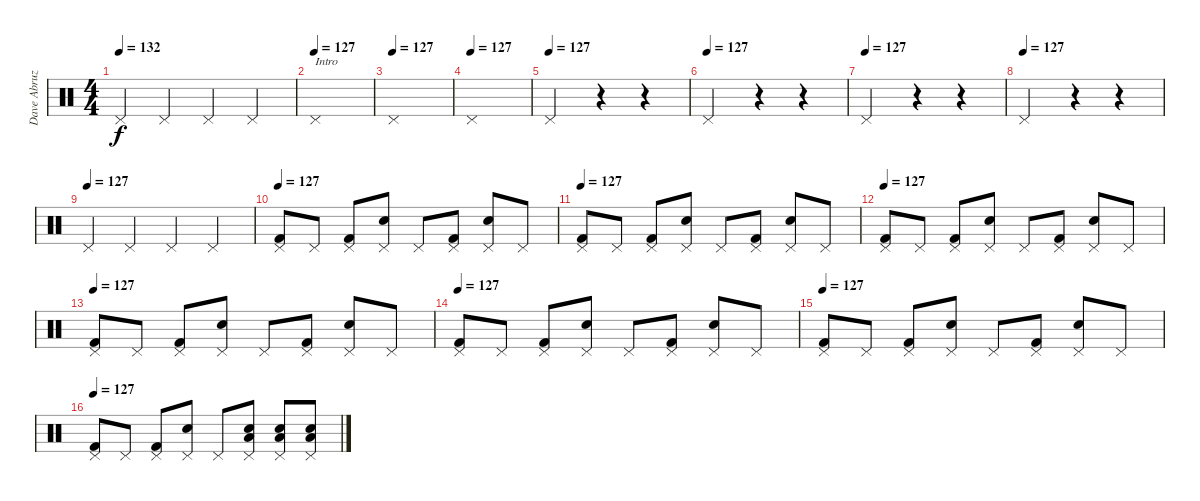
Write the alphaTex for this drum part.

\track ("Dave Abruzzesse" "Dave Abruz") {instrument percussion}
\staff {score}
\articulation defaults
\ts (4 4)
\tempo 132
\clef neutral
\ks c "Pedal Hi-Hat (hit)".4{dy f} "Pedal Hi-Hat (hit)".4 "Pedal Hi-Hat (hit)".4 "Pedal Hi-Hat (hit)".4
|
\tempo (127)
"Pedal Hi-Hat (hit)".1{txt "Intro"} |
\tempo (127)
"Pedal Hi-Hat (hit)".1 |
\tempo (127)
"Pedal Hi-Hat (hit)".1 |
\tempo (127)
"Pedal Hi-Hat (hit)".2 r.4 r.4 |
\tempo (127)
"Pedal Hi-Hat (hit)".2 r.4 r.4 |
\tempo (127)
"Pedal Hi-Hat (hit)".2 r.4 r.4 |
\tempo (127)
"Pedal Hi-Hat (hit)".2 r.4 r.4 |
\tempo (127)
"Pedal Hi-Hat (hit)".4 "Pedal Hi-Hat (hit)".4 "Pedal Hi-Hat (hit)".4 "Pedal Hi-Hat (hit)".4 |
\tempo 127
("Kick (hit) 2" "Pedal Hi-Hat (hit)").8 "Pedal Hi-Hat (hit)".8 ("Kick (hit) 2" "Pedal Hi-Hat (hit)").8 ("Electric Snare (hit)" "Pedal Hi-Hat (hit)").8 "Pedal Hi-Hat (hit)".8 ("Kick (hit) 2" "Pedal Hi-Hat (hit)").8 ("Electric Snare (hit)" "Pedal Hi-Hat (hit)").8 "Pedal Hi-Hat (hit)".8 |
\tempo 127
("Kick (hit) 2" "Pedal Hi-Hat (hit)").8 "Pedal Hi-Hat (hit)".8 ("Kick (hit) 2" "Pedal Hi-Hat (hit)").8 ("Electric Snare (hit)" "Pedal Hi-Hat (hit)").8 "Pedal Hi-Hat (hit)".8 ("Kick (hit) 2" "Pedal Hi-Hat (hit)").8 ("Electric Snare (hit)" "Pedal Hi-Hat (hit)").8 "Pedal Hi-Hat (hit)".8 |
\tempo 127
("Kick (hit) 2" "Pedal Hi-Hat (hit)").8 "Pedal Hi-Hat (hit)".8 ("Kick (hit) 2" "Pedal Hi-Hat (hit)").8 ("Electric Snare (hit)" "Pedal Hi-Hat (hit)").8 "Pedal Hi-Hat (hit)".8 ("Kick (hit) 2" "Pedal Hi-Hat (hit)").8 ("Electric Snare (hit)" "Pedal Hi-Hat (hit)").8 "Pedal Hi-Hat (hit)".8 |
\tempo 127
("Kick (hit) 2" "Pedal Hi-Hat (hit)").8 "Pedal Hi-Hat (hit)".8 ("Kick (hit) 2" "Pedal Hi-Hat (hit)").8 ("Electric Snare (hit)" "Pedal Hi-Hat (hit)").8 "Pedal Hi-Hat (hit)".8 ("Kick (hit) 2" "Pedal Hi-Hat (hit)").8 ("Electric Snare (hit)" "Pedal Hi-Hat (hit)").8 "Pedal Hi-Hat (hit)".8 |
\tempo 127
("Kick (hit) 2" "Pedal Hi-Hat (hit)").8 "Pedal Hi-Hat (hit)".8 ("Kick (hit) 2" "Pedal Hi-Hat (hit)").8 ("Electric Snare (hit)" "Pedal Hi-Hat (hit)").8 "Pedal Hi-Hat (hit)".8 ("Kick (hit) 2" "Pedal Hi-Hat (hit)").8 ("Electric Snare (hit)" "Pedal Hi-Hat (hit)").8 "Pedal Hi-Hat (hit)".8 |
\tempo 127
("Kick (hit) 2" "Pedal Hi-Hat (hit)").8 "Pedal Hi-Hat (hit)".8 ("Kick (hit) 2" "Pedal Hi-Hat (hit)").8 ("Electric Snare (hit)" "Pedal Hi-Hat (hit)").8 "Pedal Hi-Hat (hit)".8 ("Kick (hit) 2" "Pedal Hi-Hat (hit)").8 ("Electric Snare (hit)" "Pedal Hi-Hat (hit)").8 "Pedal Hi-Hat (hit)".8 |
\tempo 127
("Kick (hit) 2" "Pedal Hi-Hat (hit)").8 "Pedal Hi-Hat (hit)".8 ("Kick (hit) 2" "Pedal Hi-Hat (hit)").8 ("Electric Snare (hit)" "Pedal Hi-Hat (hit)").8 "Pedal Hi-Hat (hit)".8 ("Low Tom (hit)" "Electric Snare (hit)" "Pedal Hi-Hat (hit)").8 ("Electric Snare (hit)" "Low Tom (hit)" "Pedal Hi-Hat (hit)").8 ("Low Tom (hit)" "Electric Snare (hit)" "Pedal Hi-Hat (hit)").8
